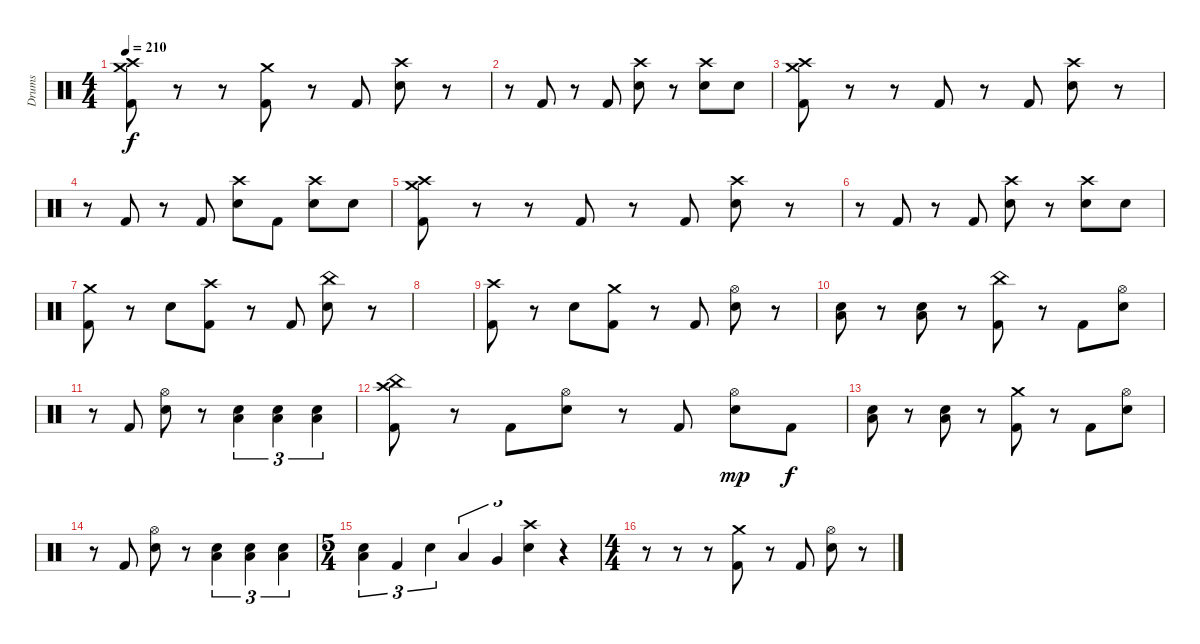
\track ("Drums" "Drums") {instrument percussion}
\staff {score}
\articulation defaults
\ts (4 4)
\tempo 210
\clef neutral
\ks c
("Crash high (hit)" "Crash medium (hit)" "Kick (hit) 2").8{dy f} r.8 r.8 ("Crash medium (hit)" "Kick (hit) 2").8 r.8 "Kick (hit) 2".8 ("Crash high (hit)" "Electric Snare (hit)").8 r.8 |
r.8 "Kick (hit) 2".8 r.8 "Kick (hit) 2".8 ("Crash high (hit)" "Electric Snare (hit)").8 r.8 ("Crash high (hit)" "Electric Snare (hit)").8 "Electric Snare (hit)".8 |
("Crash high (hit)" "Crash medium (hit)" "Kick (hit) 2").8 r.8 r.8 "Kick (hit) 2".8 r.8 "Kick (hit) 2".8 ("Crash high (hit)" "Electric Snare (hit)").8 r.8 |
r.8 "Kick (hit) 2".8 r.8 "Kick (hit) 2".8 ("Crash high (hit)" "Electric Snare (hit)").8 "Kick (hit) 2".8 ("Crash high (hit)" "Electric Snare (hit)").8 "Electric Snare (hit)".8 |
("Crash high (hit)" "Crash medium (hit)" "Kick (hit) 2").8 r.8 r.8 "Kick (hit) 2".8 r.8 "Kick (hit) 2".8 ("Crash high (hit)" "Electric Snare (hit)").8 r.8 |
r.8 "Kick (hit) 2".8 r.8 "Kick (hit) 2".8 ("Crash high (hit)" "Electric Snare (hit)").8 r.8 ("Crash high (hit)" "Electric Snare (hit)").8 "Electric Snare (hit)".8 |
("Crash medium (hit)" "Kick (hit) 2").8 r.8 "Electric Snare (hit)".8 ("Crash high (hit)" "Kick (hit) 2").8 r.8 "Kick (hit) 2".8 ("China (hit)" "Electric Snare (hit)").8 r.8 |
|
("Crash high (hit)" "Kick (hit) 2").8 r.8 "Electric Snare (hit)".8 ("Crash medium (hit)" "Kick (hit) 2").8 r.8 "Kick (hit) 2".8 ("Hi-Hat (open)" "Electric Snare (hit)").8 r.8 |
("Low Floor Tom (hit)" "Electric Snare (hit)").8 r.8 ("Low Floor Tom (hit)" "Electric Snare (hit)").8 r.8 ("China (hit)" "Kick (hit) 2").8 r.8 "Kick (hit) 2".8 ("Hi-Hat (open)" "Electric Snare (hit)").8 |
r.8 "Kick (hit) 2".8 ("Hi-Hat (open)" "Electric Snare (hit)").8 r.8 ("Low Floor Tom (hit)" "Electric Snare (hit)").4{tu (3 2)} ("Low Floor Tom (hit)" "Electric Snare (hit)").4{tu (3 2)} ("Low Floor Tom (hit)" "Electric Snare (hit)").4{tu (3 2)} |
("Crash high (hit)" "China (hit)" "Kick (hit) 2").8 r.8 "Kick (hit) 2".8 ("Hi-Hat (open)" "Electric Snare (hit)").8 r.8 "Kick (hit) 2".8 ("Hi-Hat (open)" "Electric Snare (hit)").8{dy mp} "Kick (hit) 2".8{dy f} |
("Low Floor Tom (hit)" "Electric Snare (hit)").8 r.8 ("Low Floor Tom (hit)" "Electric Snare (hit)").8 r.8 ("Crash medium (hit)" "Kick (hit) 2").8 r.8 "Kick (hit) 2".8 ("Hi-Hat (open)" "Electric Snare (hit)").8 |
r.8 "Kick (hit) 2".8 ("Hi-Hat (open)" "Electric Snare (hit)").8 r.8 ("Low Floor Tom (hit)" "Electric Snare (hit)").4{tu (3 2)} ("Low Floor Tom (hit)" "Electric Snare (hit)").4{tu (3 2)} ("Low Floor Tom (hit)" "Electric Snare (hit)").4{tu (3 2)} |
\ts (5 4)
("Low Floor Tom (hit)" "Electric Snare (hit)").4{tu (3 2)} "Kick (hit) 2".4{tu (3 2)} "Electric Snare (hit)".4{tu (3 2)} "Low Tom (hit)".4{tu (3 2)} "Very Low Tom (hit)".4{tu (3 2)} ("Crash high (hit)" "Electric Snare (hit)").4{tu (3 2)} r.4 |
\ts (4 4)
r.8 r.8 r.8 ("Crash medium (hit)" "Kick (hit) 2").8 r.8 "Kick (hit) 2".8 ("Hi-Hat (open)" "Electric Snare (hit)").8 r.8
